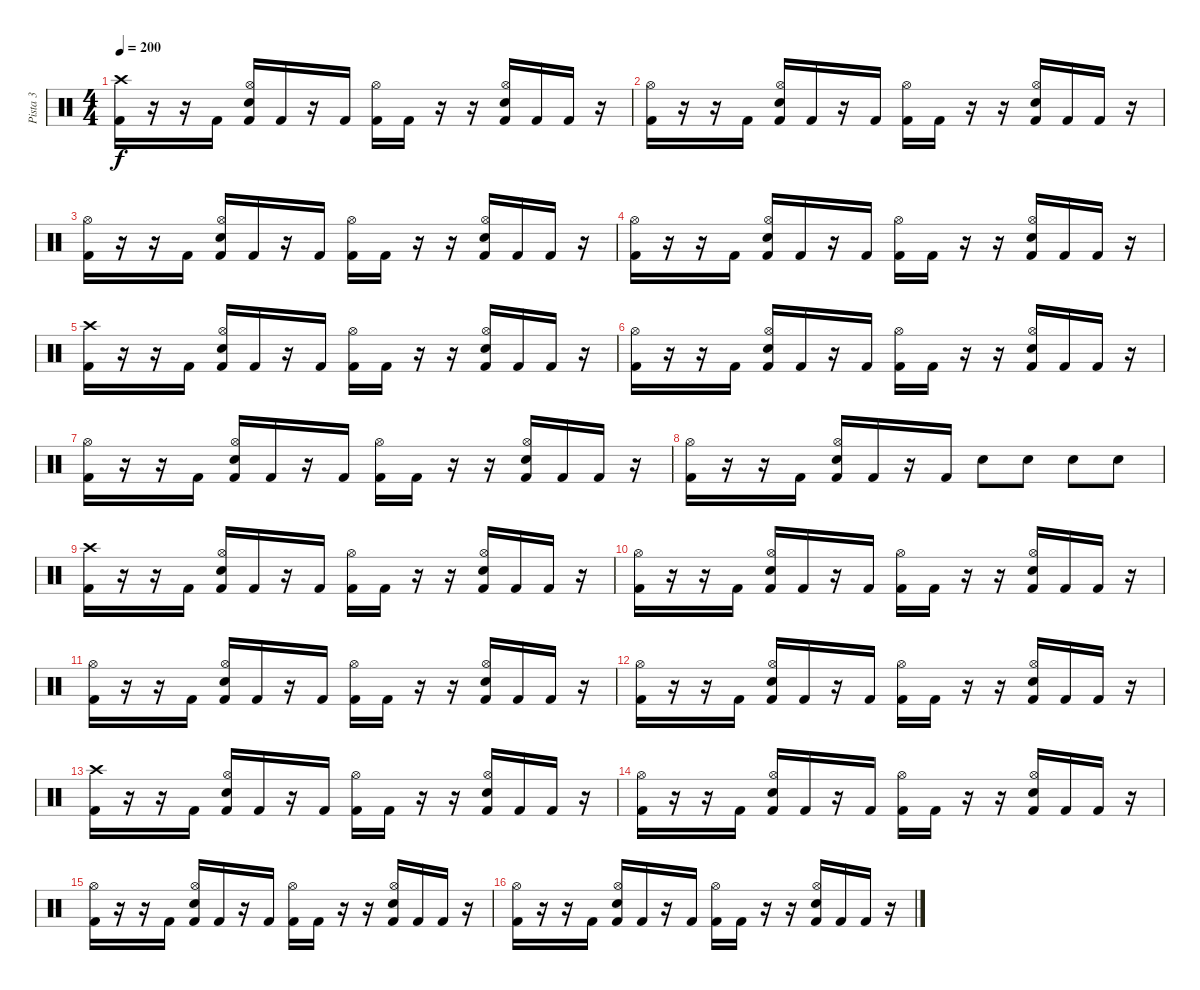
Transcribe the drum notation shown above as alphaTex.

\track ("Pista 3" "Pista 3") {instrument percussion}
\staff {score}
\articulation defaults
\ts (4 4)
\tempo 200
\clef neutral
\ks c
("Crash high (hit)" "Kick (hit) 2").16{dy f} r.16 r.16 "Kick (hit) 2".16 ("Hi-Hat (open)" "Electric Snare (hit)" "Kick (hit) 2").16 "Kick (hit) 2".16 r.16 "Kick (hit) 2".16 ("Hi-Hat (open)" "Kick (hit) 2").16 "Kick (hit) 2".16 r.16 r.16 ("Hi-Hat (open)" "Electric Snare (hit)" "Kick (hit) 2").16 "Kick (hit) 2".16 "Kick (hit) 2".16 r.16 |
("Hi-Hat (open)" "Kick (hit) 2").16 r.16 r.16 "Kick (hit) 2".16 ("Hi-Hat (open)" "Electric Snare (hit)" "Kick (hit) 2").16 "Kick (hit) 2".16 r.16 "Kick (hit) 2".16 ("Hi-Hat (open)" "Kick (hit) 2").16 "Kick (hit) 2".16 r.16 r.16 ("Hi-Hat (open)" "Electric Snare (hit)" "Kick (hit) 2").16 "Kick (hit) 2".16 "Kick (hit) 2".16 r.16 |
("Hi-Hat (open)" "Kick (hit) 2").16 r.16 r.16 "Kick (hit) 2".16 ("Hi-Hat (open)" "Electric Snare (hit)" "Kick (hit) 2").16 "Kick (hit) 2".16 r.16 "Kick (hit) 2".16 ("Hi-Hat (open)" "Kick (hit) 2").16 "Kick (hit) 2".16 r.16 r.16 ("Hi-Hat (open)" "Electric Snare (hit)" "Kick (hit) 2").16 "Kick (hit) 2".16 "Kick (hit) 2".16 r.16 |
("Hi-Hat (open)" "Kick (hit) 2").16 r.16 r.16 "Kick (hit) 2".16 ("Hi-Hat (open)" "Electric Snare (hit)" "Kick (hit) 2").16 "Kick (hit) 2".16 r.16 "Kick (hit) 2".16 ("Hi-Hat (open)" "Kick (hit) 2").16 "Kick (hit) 2".16 r.16 r.16 ("Hi-Hat (open)" "Electric Snare (hit)" "Kick (hit) 2").16 "Kick (hit) 2".16 "Kick (hit) 2".16 r.16 |
("Crash high (hit)" "Kick (hit) 2").16 r.16 r.16 "Kick (hit) 2".16 ("Hi-Hat (open)" "Electric Snare (hit)" "Kick (hit) 2").16 "Kick (hit) 2".16 r.16 "Kick (hit) 2".16 ("Hi-Hat (open)" "Kick (hit) 2").16 "Kick (hit) 2".16 r.16 r.16 ("Hi-Hat (open)" "Electric Snare (hit)" "Kick (hit) 2").16 "Kick (hit) 2".16 "Kick (hit) 2".16 r.16 |
("Hi-Hat (open)" "Kick (hit) 2").16 r.16 r.16 "Kick (hit) 2".16 ("Hi-Hat (open)" "Electric Snare (hit)" "Kick (hit) 2").16 "Kick (hit) 2".16 r.16 "Kick (hit) 2".16 ("Hi-Hat (open)" "Kick (hit) 2").16 "Kick (hit) 2".16 r.16 r.16 ("Hi-Hat (open)" "Electric Snare (hit)" "Kick (hit) 2").16 "Kick (hit) 2".16 "Kick (hit) 2".16 r.16 |
("Hi-Hat (open)" "Kick (hit) 2").16 r.16 r.16 "Kick (hit) 2".16 ("Hi-Hat (open)" "Electric Snare (hit)" "Kick (hit) 2").16 "Kick (hit) 2".16 r.16 "Kick (hit) 2".16 ("Hi-Hat (open)" "Kick (hit) 2").16 "Kick (hit) 2".16 r.16 r.16 ("Hi-Hat (open)" "Electric Snare (hit)" "Kick (hit) 2").16 "Kick (hit) 2".16 "Kick (hit) 2".16 r.16 |
("Hi-Hat (open)" "Kick (hit) 2").16 r.16 r.16 "Kick (hit) 2".16 ("Hi-Hat (open)" "Electric Snare (hit)" "Kick (hit) 2").16 "Kick (hit) 2".16 r.16 "Kick (hit) 2".16 "Electric Snare (hit)".8 "Electric Snare (hit)".8 "Electric Snare (hit)".8 "Electric Snare (hit)".8 |
("Crash high (hit)" "Kick (hit) 2").16 r.16 r.16 "Kick (hit) 2".16 ("Hi-Hat (open)" "Electric Snare (hit)" "Kick (hit) 2").16 "Kick (hit) 2".16 r.16 "Kick (hit) 2".16 ("Hi-Hat (open)" "Kick (hit) 2").16 "Kick (hit) 2".16 r.16 r.16 ("Hi-Hat (open)" "Electric Snare (hit)" "Kick (hit) 2").16 "Kick (hit) 2".16 "Kick (hit) 2".16 r.16 |
("Hi-Hat (open)" "Kick (hit) 2").16 r.16 r.16 "Kick (hit) 2".16 ("Hi-Hat (open)" "Electric Snare (hit)" "Kick (hit) 2").16 "Kick (hit) 2".16 r.16 "Kick (hit) 2".16 ("Hi-Hat (open)" "Kick (hit) 2").16 "Kick (hit) 2".16 r.16 r.16 ("Hi-Hat (open)" "Electric Snare (hit)" "Kick (hit) 2").16 "Kick (hit) 2".16 "Kick (hit) 2".16 r.16 |
("Hi-Hat (open)" "Kick (hit) 2").16 r.16 r.16 "Kick (hit) 2".16 ("Hi-Hat (open)" "Electric Snare (hit)" "Kick (hit) 2").16 "Kick (hit) 2".16 r.16 "Kick (hit) 2".16 ("Hi-Hat (open)" "Kick (hit) 2").16 "Kick (hit) 2".16 r.16 r.16 ("Hi-Hat (open)" "Electric Snare (hit)" "Kick (hit) 2").16 "Kick (hit) 2".16 "Kick (hit) 2".16 r.16 |
("Hi-Hat (open)" "Kick (hit) 2").16 r.16 r.16 "Kick (hit) 2".16 ("Hi-Hat (open)" "Electric Snare (hit)" "Kick (hit) 2").16 "Kick (hit) 2".16 r.16 "Kick (hit) 2".16 ("Hi-Hat (open)" "Kick (hit) 2").16 "Kick (hit) 2".16 r.16 r.16 ("Hi-Hat (open)" "Electric Snare (hit)" "Kick (hit) 2").16 "Kick (hit) 2".16 "Kick (hit) 2".16 r.16 |
("Crash high (hit)" "Kick (hit) 2").16 r.16 r.16 "Kick (hit) 2".16 ("Hi-Hat (open)" "Electric Snare (hit)" "Kick (hit) 2").16 "Kick (hit) 2".16 r.16 "Kick (hit) 2".16 ("Hi-Hat (open)" "Kick (hit) 2").16 "Kick (hit) 2".16 r.16 r.16 ("Hi-Hat (open)" "Electric Snare (hit)" "Kick (hit) 2").16 "Kick (hit) 2".16 "Kick (hit) 2".16 r.16 |
("Hi-Hat (open)" "Kick (hit) 2").16 r.16 r.16 "Kick (hit) 2".16 ("Hi-Hat (open)" "Electric Snare (hit)" "Kick (hit) 2").16 "Kick (hit) 2".16 r.16 "Kick (hit) 2".16 ("Hi-Hat (open)" "Kick (hit) 2").16 "Kick (hit) 2".16 r.16 r.16 ("Hi-Hat (open)" "Electric Snare (hit)" "Kick (hit) 2").16 "Kick (hit) 2".16 "Kick (hit) 2".16 r.16 |
("Hi-Hat (open)" "Kick (hit) 2").16 r.16 r.16 "Kick (hit) 2".16 ("Hi-Hat (open)" "Electric Snare (hit)" "Kick (hit) 2").16 "Kick (hit) 2".16 r.16 "Kick (hit) 2".16 ("Hi-Hat (open)" "Kick (hit) 2").16 "Kick (hit) 2".16 r.16 r.16 ("Hi-Hat (open)" "Electric Snare (hit)" "Kick (hit) 2").16 "Kick (hit) 2".16 "Kick (hit) 2".16 r.16 |
("Hi-Hat (open)" "Kick (hit) 2").16 r.16 r.16 "Kick (hit) 2".16 ("Hi-Hat (open)" "Electric Snare (hit)" "Kick (hit) 2").16 "Kick (hit) 2".16 r.16 "Kick (hit) 2".16 ("Hi-Hat (open)" "Kick (hit) 2").16 "Kick (hit) 2".16 r.16 r.16 ("Hi-Hat (open)" "Electric Snare (hit)" "Kick (hit) 2").16 "Kick (hit) 2".16 "Kick (hit) 2".16 r.16
